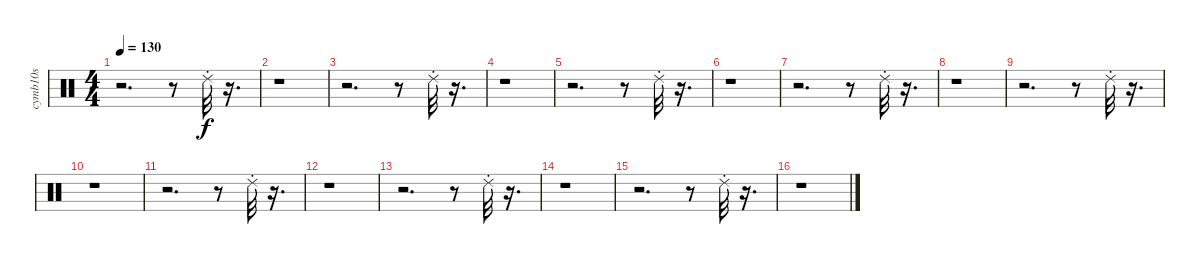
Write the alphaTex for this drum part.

\track ("cymb10s             " "cymb10s   ") {instrument percussion}
\staff {score}
\articulation defaults
\ts (4 4)
\tempo 130
\clef neutral
\ks c
r.2{d dy f} r.8 "Ride (choke) 2".32 r.16{d} |
r.1 |
r.2{d} r.8 "Ride (choke) 2".32 r.16{d} |
r.1 |
r.2{d} r.8 "Ride (choke) 2".32 r.16{d} |
r.1 |
r.2{d} r.8 "Ride (choke) 2".32 r.16{d} |
r.1 |
r.2{d} r.8 "Ride (choke) 2".32 r.16{d} |
r.1 |
r.2{d} r.8 "Ride (choke) 2".32 r.16{d} |
r.1 |
r.2{d} r.8 "Ride (choke) 2".32 r.16{d} |
r.1 |
r.2{d} r.8 "Ride (choke) 2".32 r.16{d} |
r.1
